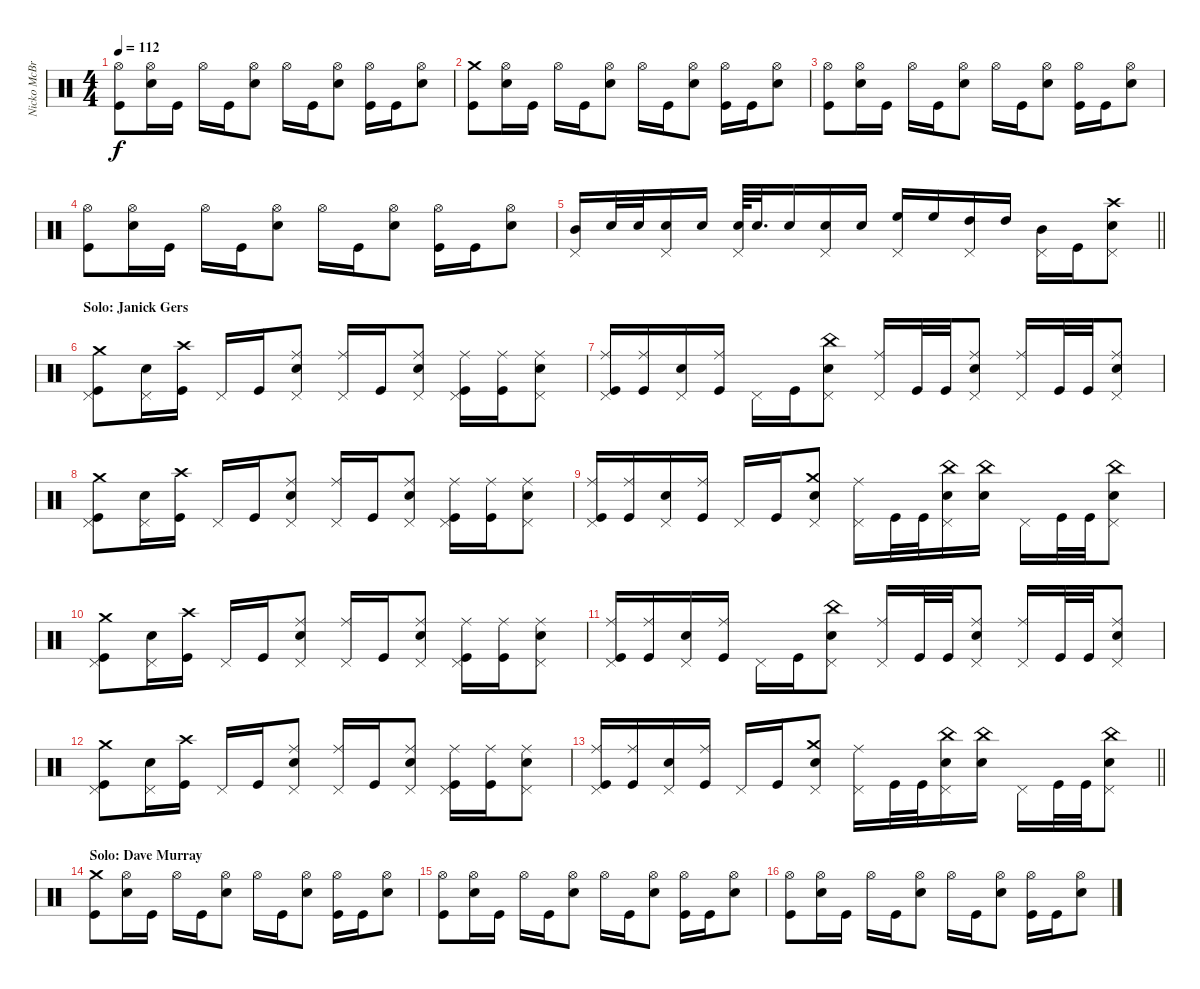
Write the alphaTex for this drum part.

\track ("Nicko McBrain" "Nicko McBr") {instrument percussion}
\staff {score}
\articulation defaults
\ts (4 4)
\tempo 112
\clef neutral
\ks c
("Hi-Hat (open)" "Kick (hit)").8{dy f} ("Hi-Hat (open)" "Snare (hit) 2").16 "Kick (hit)".16 "Hi-Hat (open)".16 "Kick (hit)".16 ("Hi-Hat (open)" "Snare (hit) 2").8 "Hi-Hat (open)".16 "Kick (hit)".16 ("Hi-Hat (open)" "Snare (hit) 2").8 ("Hi-Hat (open)" "Kick (hit)").16 "Kick (hit)".16 ("Hi-Hat (open)" "Snare (hit) 2").8 |
("Crash medium (hit)" "Kick (hit)").8 ("Hi-Hat (open)" "Snare (hit) 2").16 "Kick (hit)".16 "Hi-Hat (open)".16 "Kick (hit)".16 ("Hi-Hat (open)" "Snare (hit) 2").8 "Hi-Hat (open)".16 "Kick (hit)".16 ("Hi-Hat (open)" "Snare (hit) 2").8 ("Hi-Hat (open)" "Kick (hit)").16 "Kick (hit)".16 ("Hi-Hat (open)" "Snare (hit) 2").8 |
("Hi-Hat (open)" "Kick (hit)").8 ("Hi-Hat (open)" "Snare (hit) 2").16 "Kick (hit)".16 "Hi-Hat (open)".16 "Kick (hit)".16 ("Hi-Hat (open)" "Snare (hit) 2").8 "Hi-Hat (open)".16 "Kick (hit)".16 ("Hi-Hat (open)" "Snare (hit) 2").8 ("Hi-Hat (open)" "Kick (hit)").16 "Kick (hit)".16 ("Hi-Hat (open)" "Snare (hit) 2").8 |
("Hi-Hat (open)" "Kick (hit)").8 ("Hi-Hat (open)" "Snare (hit) 2").16 "Kick (hit)".16 "Hi-Hat (open)".16 "Kick (hit)".16 ("Hi-Hat (open)" "Snare (hit) 2").8 "Hi-Hat (open)".16 "Kick (hit)".16 ("Hi-Hat (open)" "Snare (hit) 2").8 ("Hi-Hat (open)" "Kick (hit)").16 "Kick (hit)".16 ("Hi-Hat (open)" "Snare (hit) 2").8 |
\barLineRight lightlight
("Mid Tom (hit)" "Pedal Hi-Hat (hit)").16 "Snare (hit) 2".32 "Snare (hit) 2".32 ("Snare (hit) 2" "Pedal Hi-Hat (hit)").16 "Snare (hit) 2".16 ("Snare (hit) 2" "Pedal Hi-Hat (hit)").64 "Snare (hit) 2".32{d} "Snare (hit) 2".16 ("Snare (hit) 2" "Pedal Hi-Hat (hit)").16 "Snare (hit) 2".16 ("High Floor Tom (hit)" "Pedal Hi-Hat (hit)").16 "High Floor Tom (hit)".16 ("High Tom (hit)" "Pedal Hi-Hat (hit)").16 "High Tom (hit)".16 ("Mid Tom (hit)" "Pedal Hi-Hat (hit)").16 "Kick (hit)".16 ("Crash high (hit)" "Snare (hit) 2" "Pedal Hi-Hat (hit)").8 |
\section ("" "Solo: Janick Gers")
("Crash medium (hit)" "Pedal Hi-Hat (hit)" "Kick (hit)").8 ("Snare (hit) 2" "Pedal Hi-Hat (hit)").16 ("Crash high (hit)" "Kick (hit)").16 "Pedal Hi-Hat (hit)".16 "Kick (hit)".16 ("Ride (middle)" "Snare (hit) 2" "Pedal Hi-Hat (hit)").8 ("Ride (middle)" "Pedal Hi-Hat (hit)").16 "Kick (hit)".16 ("Ride (middle)" "Snare (hit) 2" "Pedal Hi-Hat (hit)").8 ("Ride (middle)" "Pedal Hi-Hat (hit)" "Kick (hit)").16 ("Ride (middle)" "Kick (hit)").16 ("Ride (middle)" "Snare (hit) 2" "Pedal Hi-Hat (hit)").8 |
("Ride (middle)" "Pedal Hi-Hat (hit)" "Kick (hit)").16 ("Ride (middle)" "Kick (hit)").16 ("Snare (hit) 2" "Pedal Hi-Hat (hit)").16 ("Ride (middle)" "Kick (hit)").16 "Pedal Hi-Hat (hit)".16 "Kick (hit)".16 ("China (hit)" "Snare (hit) 2" "Pedal Hi-Hat (hit)").8 ("Ride (middle)" "Pedal Hi-Hat (hit)").16 "Kick (hit)".32 "Kick (hit)".32 ("Ride (middle)" "Snare (hit) 2" "Pedal Hi-Hat (hit)").8 ("Ride (middle)" "Pedal Hi-Hat (hit)").16 "Kick (hit)".32 "Kick (hit)".32 ("Ride (middle)" "Snare (hit) 2" "Pedal Hi-Hat (hit)").8 |
("Crash medium (hit)" "Pedal Hi-Hat (hit)" "Kick (hit)").8 ("Snare (hit) 2" "Pedal Hi-Hat (hit)").16 ("Crash high (hit)" "Kick (hit)").16 "Pedal Hi-Hat (hit)".16 "Kick (hit)".16 ("Ride (middle)" "Snare (hit) 2" "Pedal Hi-Hat (hit)").8 ("Ride (middle)" "Pedal Hi-Hat (hit)").16 "Kick (hit)".16 ("Ride (middle)" "Snare (hit) 2" "Pedal Hi-Hat (hit)").8 ("Ride (middle)" "Pedal Hi-Hat (hit)" "Kick (hit)").16 ("Ride (middle)" "Kick (hit)").16 ("Ride (middle)" "Snare (hit) 2" "Pedal Hi-Hat (hit)").8 |
("Ride (middle)" "Pedal Hi-Hat (hit)" "Kick (hit)").16 ("Ride (middle)" "Kick (hit)").16 ("Snare (hit) 2" "Pedal Hi-Hat (hit)").16 ("Ride (middle)" "Kick (hit)").16 "Pedal Hi-Hat (hit)".16 "Kick (hit)".16 ("Crash medium (hit)" "Snare (hit) 2" "Pedal Hi-Hat (hit)").8 ("Ride (middle)" "Pedal Hi-Hat (hit)").16 "Kick (hit)".32 "Kick (hit)".32 ("China (hit)" "Snare (hit) 2" "Pedal Hi-Hat (hit)").16 ("China (hit)" "Snare (hit) 2").16 "Pedal Hi-Hat (hit)".16 "Kick (hit)".32 "Kick (hit)".32 ("China (hit)" "Snare (hit) 2" "Pedal Hi-Hat (hit)").8 |
("Crash medium (hit)" "Pedal Hi-Hat (hit)" "Kick (hit)").8 ("Snare (hit) 2" "Pedal Hi-Hat (hit)").16 ("Crash high (hit)" "Kick (hit)").16 "Pedal Hi-Hat (hit)".16 "Kick (hit)".16 ("Ride (middle)" "Snare (hit) 2" "Pedal Hi-Hat (hit)").8 ("Ride (middle)" "Pedal Hi-Hat (hit)").16 "Kick (hit)".16 ("Ride (middle)" "Snare (hit) 2" "Pedal Hi-Hat (hit)").8 ("Ride (middle)" "Pedal Hi-Hat (hit)" "Kick (hit)").16 ("Ride (middle)" "Kick (hit)").16 ("Ride (middle)" "Snare (hit) 2" "Pedal Hi-Hat (hit)").8 |
("Ride (middle)" "Pedal Hi-Hat (hit)" "Kick (hit)").16 ("Ride (middle)" "Kick (hit)").16 ("Snare (hit) 2" "Pedal Hi-Hat (hit)").16 ("Ride (middle)" "Kick (hit)").16 "Pedal Hi-Hat (hit)".16 "Kick (hit)".16 ("China (hit)" "Snare (hit) 2" "Pedal Hi-Hat (hit)").8 ("Ride (middle)" "Pedal Hi-Hat (hit)").16 "Kick (hit)".32 "Kick (hit)".32 ("Ride (middle)" "Snare (hit) 2" "Pedal Hi-Hat (hit)").8 ("Ride (middle)" "Pedal Hi-Hat (hit)").16 "Kick (hit)".32 "Kick (hit)".32 ("Ride (middle)" "Snare (hit) 2" "Pedal Hi-Hat (hit)").8 |
("Crash medium (hit)" "Pedal Hi-Hat (hit)" "Kick (hit)").8 ("Snare (hit) 2" "Pedal Hi-Hat (hit)").16 ("Crash high (hit)" "Kick (hit)").16 "Pedal Hi-Hat (hit)".16 "Kick (hit)".16 ("Ride (middle)" "Snare (hit) 2" "Pedal Hi-Hat (hit)").8 ("Ride (middle)" "Pedal Hi-Hat (hit)").16 "Kick (hit)".16 ("Ride (middle)" "Snare (hit) 2" "Pedal Hi-Hat (hit)").8 ("Ride (middle)" "Pedal Hi-Hat (hit)" "Kick (hit)").16 ("Ride (middle)" "Kick (hit)").16 ("Ride (middle)" "Snare (hit) 2" "Pedal Hi-Hat (hit)").8 |
\barLineRight lightlight
("Ride (middle)" "Pedal Hi-Hat (hit)" "Kick (hit)").16 ("Ride (middle)" "Kick (hit)").16 ("Snare (hit) 2" "Pedal Hi-Hat (hit)").16 ("Ride (middle)" "Kick (hit)").16 "Pedal Hi-Hat (hit)".16 "Kick (hit)".16 ("Crash medium (hit)" "Snare (hit) 2" "Pedal Hi-Hat (hit)").8 ("Ride (middle)" "Pedal Hi-Hat (hit)").16 "Kick (hit)".32 "Kick (hit)".32 ("China (hit)" "Snare (hit) 2" "Pedal Hi-Hat (hit)").16 ("China (hit)" "Snare (hit) 2").16 "Pedal Hi-Hat (hit)".16 "Kick (hit)".32 "Kick (hit)".32 ("China (hit)" "Snare (hit) 2" "Pedal Hi-Hat (hit)").8 |
\section ("" "Solo: Dave Murray")
("Crash medium (hit)" "Kick (hit)").8 ("Hi-Hat (open)" "Snare (hit) 2").16 "Kick (hit)".16 "Hi-Hat (open)".16 "Kick (hit)".16 ("Hi-Hat (open)" "Snare (hit) 2").8 "Hi-Hat (open)".16 "Kick (hit)".16 ("Hi-Hat (open)" "Snare (hit) 2").8 ("Hi-Hat (open)" "Kick (hit)").16 "Kick (hit)".16 ("Hi-Hat (open)" "Snare (hit) 2").8 |
("Hi-Hat (open)" "Kick (hit)").8 ("Hi-Hat (open)" "Snare (hit) 2").16 "Kick (hit)".16 "Hi-Hat (open)".16 "Kick (hit)".16 ("Hi-Hat (open)" "Snare (hit) 2").8 "Hi-Hat (open)".16 "Kick (hit)".16 ("Hi-Hat (open)" "Snare (hit) 2").8 ("Hi-Hat (open)" "Kick (hit)").16 "Kick (hit)".16 ("Hi-Hat (open)" "Snare (hit) 2").8 |
("Hi-Hat (open)" "Kick (hit)").8 ("Hi-Hat (open)" "Snare (hit) 2").16 "Kick (hit)".16 "Hi-Hat (open)".16 "Kick (hit)".16 ("Hi-Hat (open)" "Snare (hit) 2").8 "Hi-Hat (open)".16 "Kick (hit)".16 ("Hi-Hat (open)" "Snare (hit) 2").8 ("Hi-Hat (open)" "Kick (hit)").16 "Kick (hit)".16 ("Hi-Hat (open)" "Snare (hit) 2").8
